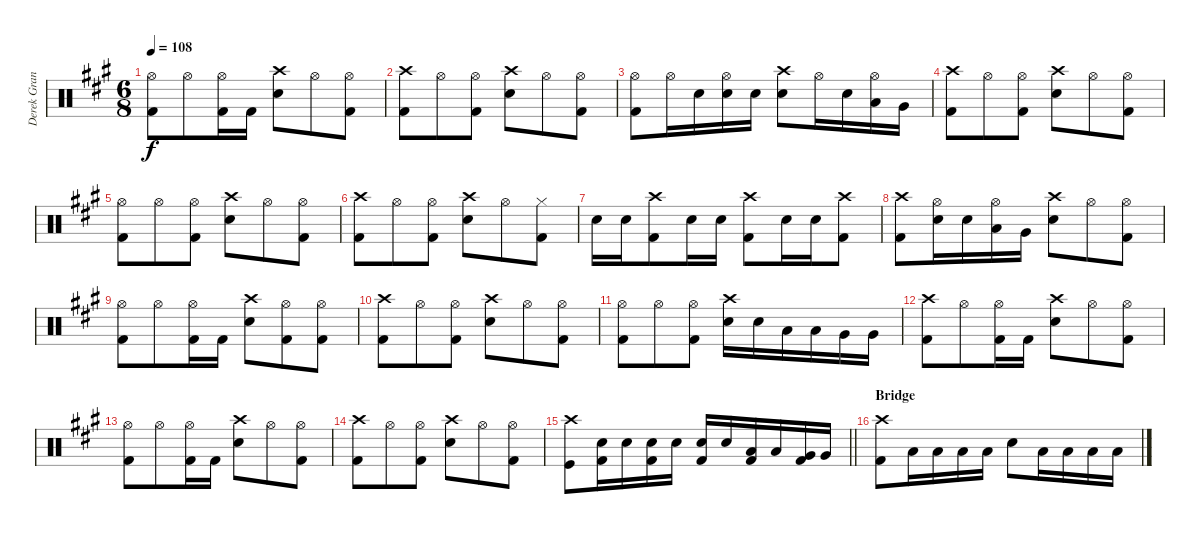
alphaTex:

\track ("Derek Grant - Drums" "Derek Gran") {instrument percussion}
\staff {score}
\articulation defaults
\ts (6 8)
\tempo 108
\clef neutral
\ks a
("Kick (hit) 2" "Hi-Hat (open)").8{dy f} "Hi-Hat (open)".8 ("Kick (hit) 2" "Hi-Hat (open)").16 "Kick (hit) 2".16 ("Snare (hit) 2" "Crash high (hit)").8 "Hi-Hat (open)".8 ("Hi-Hat (open)" "Kick (hit) 2").8 |
("Crash high (hit)" "Kick (hit) 2").8 "Hi-Hat (open)".8 ("Kick (hit) 2" "Hi-Hat (open)").8 ("Snare (hit) 2" "Crash high (hit)").8 "Hi-Hat (open)".8 ("Kick (hit) 2" "Hi-Hat (open)").8 |
("Kick (hit) 2" "Hi-Hat (open)").8 "Hi-Hat (open)".16 "Snare (hit) 2".16 ("Hi-Hat (open)" "Snare (hit) 2").16 "Snare (hit) 2".16 ("Snare (hit) 2" "Crash high (hit)").8 "Hi-Hat (open)".16 "Snare (hit) 2".16 ("Low Tom (hit)" "Hi-Hat (open)").16 "Very Low Tom (hit)".16 |
("Crash high (hit)" "Kick (hit) 2").8 "Hi-Hat (open)".8 ("Kick (hit) 2" "Hi-Hat (open)").8 ("Snare (hit) 2" "Crash high (hit)").8 "Hi-Hat (open)".8 ("Kick (hit) 2" "Hi-Hat (open)").8 |
("Kick (hit) 2" "Hi-Hat (open)").8 "Hi-Hat (open)".8 ("Kick (hit) 2" "Hi-Hat (open)").8 ("Snare (hit) 2" "Crash high (hit)").8 "Hi-Hat (open)".8 ("Hi-Hat (open)" "Kick (hit) 2").8 |
("Crash high (hit)" "Kick (hit) 2").8 "Hi-Hat (open)".8 ("Kick (hit) 2" "Hi-Hat (open)").8 ("Snare (hit) 2" "Crash high (hit)").8 "Hi-Hat (open)".8 ("Kick (hit) 2" "Hi-Hat (closed)").8 |
"Snare (hit) 2".16 "Snare (hit) 2".16 ("Kick (hit) 2" "Crash high (hit)").8 "Snare (hit) 2".16 "Snare (hit) 2".16 ("Kick (hit) 2" "Crash high (hit)").8 "Snare (hit) 2".16 "Snare (hit) 2".16 ("Kick (hit) 2" "Crash high (hit)").8 |
("Crash high (hit)" "Kick (hit) 2").8 ("Hi-Hat (open)" "Snare (hit) 2").16 "Snare (hit) 2".16 ("Low Tom (hit)" "Hi-Hat (open)").16 "Very Low Tom (hit)".16 ("Snare (hit) 2" "Crash high (hit)").8 "Hi-Hat (open)".8 ("Kick (hit) 2" "Hi-Hat (open)").8 |
("Kick (hit) 2" "Hi-Hat (open)").8 "Hi-Hat (open)".8 ("Kick (hit) 2" "Hi-Hat (open)").16 "Kick (hit) 2".16 ("Snare (hit) 2" "Crash high (hit)").8 ("Hi-Hat (open)" "Kick (hit) 2").8 ("Hi-Hat (open)" "Kick (hit) 2").8 |
("Crash high (hit)" "Kick (hit) 2").8 "Hi-Hat (open)".8 ("Kick (hit) 2" "Hi-Hat (open)").8 ("Snare (hit) 2" "Crash high (hit)").8 "Hi-Hat (open)".8 ("Kick (hit) 2" "Hi-Hat (open)").8 |
("Kick (hit) 2" "Hi-Hat (open)").8 "Hi-Hat (open)".8 ("Kick (hit) 2" "Hi-Hat (open)").8 ("Snare (hit) 2" "Crash high (hit)").16 "Snare (hit) 2".16 "Low Tom (hit)".16 "Low Tom (hit)".16 "Very Low Tom (hit)".16 "Very Low Tom (hit)".16 |
("Kick (hit) 2" "Crash high (hit)").8 "Hi-Hat (open)".8 ("Kick (hit) 2" "Hi-Hat (open)").16 "Kick (hit) 2".16 ("Snare (hit) 2" "Crash high (hit)").8 "Hi-Hat (open)".8 ("Kick (hit) 2" "Hi-Hat (open)").8 |
("Kick (hit) 2" "Hi-Hat (open)").8 "Hi-Hat (open)".8 ("Kick (hit) 2" "Hi-Hat (open)").16 "Kick (hit) 2".16 ("Snare (hit) 2" "Crash high (hit)").8 "Hi-Hat (open)".8 ("Kick (hit) 2" "Hi-Hat (open)").8 |
("Crash high (hit)" "Kick (hit) 2").8 "Hi-Hat (open)".8 ("Kick (hit) 2" "Hi-Hat (open)").8 ("Snare (hit) 2" "Crash high (hit)").8 "Hi-Hat (open)".8 ("Kick (hit) 2" "Hi-Hat (open)").8 |
\barLineRight lightlight
("Crash high (hit)" "Kick (hit)").8 ("Snare (hit) 2" "Kick (hit) 2").16 "Snare (hit) 2".16 ("Snare (hit) 2" "Kick (hit) 2").16 "Snare (hit) 2".16 ("Snare (hit) 2" "Kick (hit) 2").16 "Snare (hit) 2".16 ("Low Tom (hit)" "Kick (hit) 2").16 "Low Tom (hit)".16 ("Very Low Tom (hit)" "Kick (hit) 2").16 "Very Low Tom (hit)".16 |
\section ("" "Bridge")
("Crash high (hit)" "Kick (hit) 2").8 "Low Tom (hit)".16 "Low Floor Tom (hit)".16 "Low Tom (hit)".16 "Low Floor Tom (hit)".16 "Snare (hit) 2".8 "Low Tom (hit)".16 "Low Floor Tom (hit)".16 "Low Tom (hit)".16 "Low Floor Tom (hit)".16
